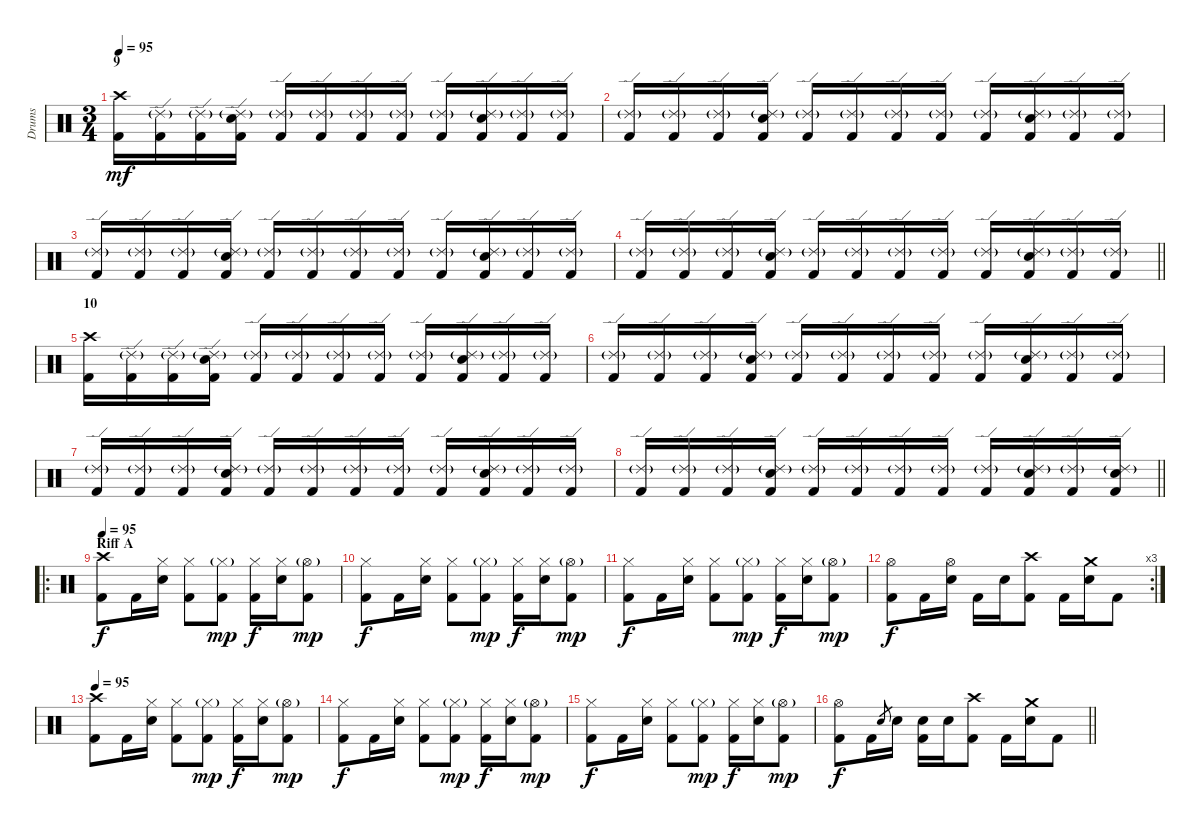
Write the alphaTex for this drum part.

\track ("Drums" "Drums") {instrument percussion}
\staff {score}
\articulation defaults
\ts (3 4)
\section ("" "9")
\tempo 95
\clef neutral
\ks c
("Crash high (hit)" "Kick (hit) 2").16{dy mf} ("Ride (edge) 2"{g} "Kick (hit) 2").16 ("Ride (edge) 2"{g} "Kick (hit) 2").16 ("Ride (edge) 2"{g} "Electric Snare (hit)" "Kick (hit) 2").16 ("Ride (edge) 2"{g} "Kick (hit) 2").16 ("Ride (edge) 2"{g} "Kick (hit) 2").16 ("Ride (edge) 2"{g} "Kick (hit) 2").16 ("Ride (edge) 2"{g} "Kick (hit) 2").16 ("Ride (edge) 2"{g} "Kick (hit) 2").16 ("Ride (edge) 2"{g} "Electric Snare (hit)" "Kick (hit) 2").16 ("Ride (edge) 2"{g} "Kick (hit) 2").16 ("Ride (edge) 2"{g} "Kick (hit) 2").16 |
("Ride (edge) 2"{g} "Kick (hit) 2").16 ("Ride (edge) 2"{g} "Kick (hit) 2").16 ("Ride (edge) 2"{g} "Kick (hit) 2").16 ("Ride (edge) 2"{g} "Electric Snare (hit)" "Kick (hit) 2").16 ("Ride (edge) 2"{g} "Kick (hit) 2").16 ("Ride (edge) 2"{g} "Kick (hit) 2").16 ("Ride (edge) 2"{g} "Kick (hit) 2").16 ("Ride (edge) 2"{g} "Kick (hit) 2").16 ("Ride (edge) 2"{g} "Kick (hit) 2").16 ("Ride (edge) 2"{g} "Electric Snare (hit)" "Kick (hit) 2").16 ("Ride (edge) 2"{g} "Kick (hit) 2").16 ("Ride (edge) 2"{g} "Kick (hit) 2").16 |
("Ride (edge) 2"{g} "Kick (hit) 2").16 ("Ride (edge) 2"{g} "Kick (hit) 2").16 ("Ride (edge) 2"{g} "Kick (hit) 2").16 ("Ride (edge) 2"{g} "Electric Snare (hit)" "Kick (hit) 2").16 ("Ride (edge) 2"{g} "Kick (hit) 2").16 ("Ride (edge) 2"{g} "Kick (hit) 2").16 ("Ride (edge) 2"{g} "Kick (hit) 2").16 ("Ride (edge) 2"{g} "Kick (hit) 2").16 ("Ride (edge) 2"{g} "Kick (hit) 2").16 ("Ride (edge) 2"{g} "Electric Snare (hit)" "Kick (hit) 2").16 ("Ride (edge) 2"{g} "Kick (hit) 2").16 ("Ride (edge) 2"{g} "Kick (hit) 2").16 |
\barLineRight lightlight
("Ride (edge) 2"{g} "Kick (hit) 2").16 ("Ride (edge) 2"{g} "Kick (hit) 2").16 ("Ride (edge) 2"{g} "Kick (hit) 2").16 ("Ride (edge) 2"{g} "Electric Snare (hit)" "Kick (hit) 2").16 ("Ride (edge) 2"{g} "Kick (hit) 2").16 ("Ride (edge) 2"{g} "Kick (hit) 2").16 ("Ride (edge) 2"{g} "Kick (hit) 2").16 ("Ride (edge) 2"{g} "Kick (hit) 2").16 ("Ride (edge) 2"{g} "Kick (hit) 2").16 ("Ride (edge) 2"{g} "Electric Snare (hit)" "Kick (hit) 2").16 ("Ride (edge) 2"{g} "Kick (hit) 2").16 ("Ride (edge) 2"{g} "Kick (hit) 2").16 |
\section ("" "10")
("Crash high (hit)" "Kick (hit) 2").16 ("Ride (edge) 2"{g} "Kick (hit) 2").16 ("Ride (edge) 2"{g} "Kick (hit) 2").16 ("Ride (edge) 2"{g} "Electric Snare (hit)" "Kick (hit) 2").16 ("Ride (edge) 2"{g} "Kick (hit) 2").16 ("Ride (edge) 2"{g} "Kick (hit) 2").16 ("Ride (edge) 2"{g} "Kick (hit) 2").16 ("Ride (edge) 2"{g} "Kick (hit) 2").16 ("Ride (edge) 2"{g} "Kick (hit) 2").16 ("Ride (edge) 2"{g} "Electric Snare (hit)" "Kick (hit) 2").16 ("Ride (edge) 2"{g} "Kick (hit) 2").16 ("Ride (edge) 2"{g} "Kick (hit) 2").16 |
("Ride (edge) 2"{g} "Kick (hit) 2").16 ("Ride (edge) 2"{g} "Kick (hit) 2").16 ("Ride (edge) 2"{g} "Kick (hit) 2").16 ("Ride (edge) 2"{g} "Electric Snare (hit)" "Kick (hit) 2").16 ("Ride (edge) 2"{g} "Kick (hit) 2").16 ("Ride (edge) 2"{g} "Kick (hit) 2").16 ("Ride (edge) 2"{g} "Kick (hit) 2").16 ("Ride (edge) 2"{g} "Kick (hit) 2").16 ("Ride (edge) 2"{g} "Kick (hit) 2").16 ("Ride (edge) 2"{g} "Electric Snare (hit)" "Kick (hit) 2").16 ("Ride (edge) 2"{g} "Kick (hit) 2").16 ("Ride (edge) 2"{g} "Kick (hit) 2").16 |
("Ride (edge) 2"{g} "Kick (hit) 2").16 ("Ride (edge) 2"{g} "Kick (hit) 2").16 ("Ride (edge) 2"{g} "Kick (hit) 2").16 ("Ride (edge) 2"{g} "Electric Snare (hit)" "Kick (hit) 2").16 ("Ride (edge) 2"{g} "Kick (hit) 2").16 ("Ride (edge) 2"{g} "Kick (hit) 2").16 ("Ride (edge) 2"{g} "Kick (hit) 2").16 ("Ride (edge) 2"{g} "Kick (hit) 2").16 ("Ride (edge) 2"{g} "Kick (hit) 2").16 ("Ride (edge) 2"{g} "Electric Snare (hit)" "Kick (hit) 2").16 ("Ride (edge) 2"{g} "Kick (hit) 2").16 ("Ride (edge) 2"{g} "Kick (hit) 2").16 |
\barLineRight lightlight
("Ride (edge) 2"{g} "Kick (hit) 2").16 ("Ride (edge) 2"{g} "Kick (hit) 2").16 ("Ride (edge) 2"{g} "Kick (hit) 2").16 ("Ride (edge) 2"{g} "Electric Snare (hit)" "Kick (hit) 2").16 ("Ride (edge) 2"{g} "Kick (hit) 2").16 ("Ride (edge) 2"{g} "Kick (hit) 2").16 ("Ride (edge) 2"{g} "Kick (hit) 2").16 ("Ride (edge) 2"{g} "Kick (hit) 2").16 ("Ride (edge) 2"{g} "Kick (hit) 2").16 ("Ride (edge) 2"{g} "Electric Snare (hit)" "Kick (hit) 2").16 ("Ride (edge) 2"{g} "Kick (hit) 2").16 ("Ride (edge) 2"{g} "Electric Snare (hit)" "Kick (hit) 2").16 |
\ro
\section ("" "Riff A")
\tempo 95
("Crash high (hit)" "Kick (hit) 2").8{dy f} "Kick (hit) 2".16 ("Hi-Hat (closed)" "Electric Snare (hit)").16 ("Hi-Hat (closed)" "Kick (hit) 2").8 ("Hi-Hat (closed)"{g} "Kick (hit) 2").8{dy mp} ("Hi-Hat (closed)" "Kick (hit) 2").16{dy f} ("Hi-Hat (closed)" "Electric Snare (hit)").16 ("Hi-Hat (open)"{g} "Kick (hit) 2").8{dy mp} |
("Hi-Hat (closed)" "Kick (hit) 2").8{dy f} "Kick (hit) 2".16 ("Hi-Hat (closed)" "Electric Snare (hit)").16 ("Hi-Hat (closed)" "Kick (hit) 2").8 ("Hi-Hat (closed)"{g} "Kick (hit) 2").8{dy mp} ("Hi-Hat (closed)" "Kick (hit) 2").16{dy f} ("Hi-Hat (closed)" "Electric Snare (hit)").16 ("Hi-Hat (open)"{g} "Kick (hit) 2").8{dy mp} |
("Hi-Hat (closed)" "Kick (hit) 2").8{dy f} "Kick (hit) 2".16 ("Hi-Hat (closed)" "Electric Snare (hit)").16 ("Hi-Hat (closed)" "Kick (hit) 2").8 ("Hi-Hat (closed)"{g} "Kick (hit) 2").8{dy mp} ("Hi-Hat (closed)" "Kick (hit) 2").16{dy f} ("Hi-Hat (closed)" "Electric Snare (hit)").16 ("Hi-Hat (open)"{g} "Kick (hit) 2").8{dy mp} |
\rc 3
("Hi-Hat (open)" "Kick (hit) 2").8{dy f} "Kick (hit) 2".16 ("Hi-Hat (open)" "Electric Snare (hit)").16 "Kick (hit) 2".16 "Electric Snare (hit)".16 ("Crash high (hit)" "Kick (hit) 2").8 "Kick (hit) 2".16 ("Crash medium (hit)" "Electric Snare (hit)").16 "Kick (hit) 2".8 |
\tempo 95
("Crash high (hit)" "Kick (hit) 2").8 "Kick (hit) 2".16 ("Hi-Hat (closed)" "Electric Snare (hit)").16 ("Hi-Hat (closed)" "Kick (hit) 2").8 ("Hi-Hat (closed)"{g} "Kick (hit) 2").8{dy mp} ("Hi-Hat (closed)" "Kick (hit) 2").16{dy f} ("Hi-Hat (closed)" "Electric Snare (hit)").16 ("Hi-Hat (open)"{g} "Kick (hit) 2").8{dy mp} |
("Hi-Hat (closed)" "Kick (hit) 2").8{dy f} "Kick (hit) 2".16 ("Hi-Hat (closed)" "Electric Snare (hit)").16 ("Hi-Hat (closed)" "Kick (hit) 2").8 ("Hi-Hat (closed)"{g} "Kick (hit) 2").8{dy mp} ("Hi-Hat (closed)" "Kick (hit) 2").16{dy f} ("Hi-Hat (closed)" "Electric Snare (hit)").16 ("Hi-Hat (open)"{g} "Kick (hit) 2").8{dy mp} |
("Hi-Hat (closed)" "Kick (hit) 2").8{dy f} "Kick (hit) 2".16 ("Hi-Hat (closed)" "Electric Snare (hit)").16 ("Hi-Hat (closed)" "Kick (hit) 2").8 ("Hi-Hat (closed)"{g} "Kick (hit) 2").8{dy mp} ("Hi-Hat (closed)" "Kick (hit) 2").16{dy f} ("Hi-Hat (closed)" "Electric Snare (hit)").16 ("Hi-Hat (open)"{g} "Kick (hit) 2").8{dy mp} |
\barLineRight lightlight
("Hi-Hat (open)" "Kick (hit) 2").8{dy f} "Kick (hit) 2".16 "Electric Snare (hit)".8{gr} "Electric Snare (hit)".16 ("Electric Snare (hit)" "Kick (hit) 2").16 "Electric Snare (hit)".16 ("Crash high (hit)" "Kick (hit) 2").8 "Kick (hit) 2".16 ("Crash medium (hit)" "Electric Snare (hit)").16 "Kick (hit) 2".8
